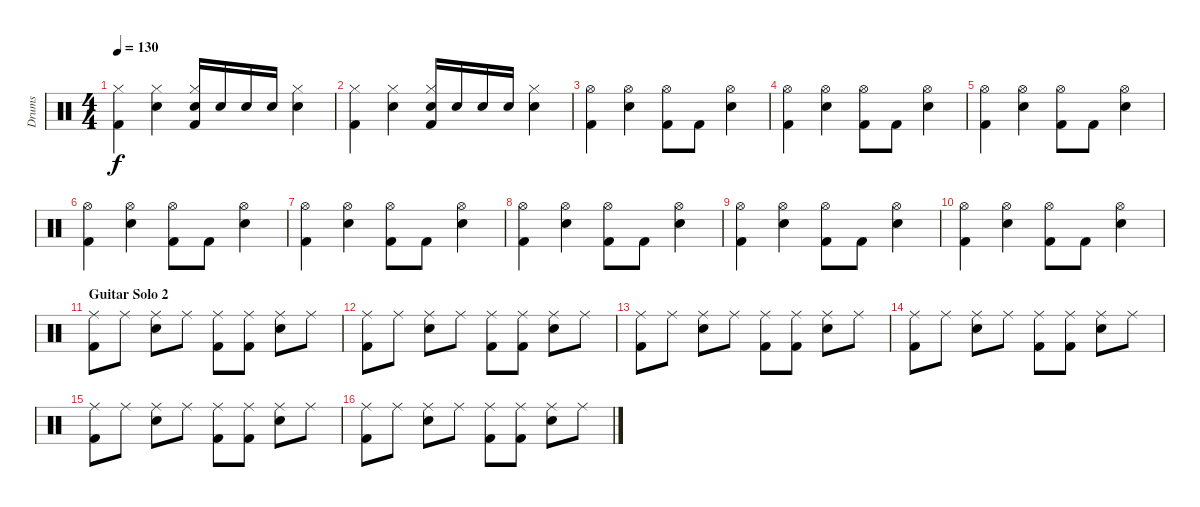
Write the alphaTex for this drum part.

\track ("Drums" "Drums") {instrument percussion}
\staff {score}
\articulation defaults
\ts (4 4)
\tempo 130
\clef neutral
\ks c
("Kick (hit) 2" "Hi-Hat (closed)").4{dy f} ("Hi-Hat (closed)" "Snare (hit) 2").4 ("Kick (hit) 2" "Hi-Hat (closed)" "Snare (hit) 2").16 "Snare (hit) 2".16 "Snare (hit) 2".16 "Snare (hit) 2".16 ("Hi-Hat (closed)" "Snare (hit) 2").4 |
("Kick (hit) 2" "Hi-Hat (closed)").4 ("Hi-Hat (closed)" "Snare (hit) 2").4 ("Kick (hit) 2" "Hi-Hat (closed)" "Snare (hit) 2").16 "Snare (hit) 2".16 "Snare (hit) 2".16 "Snare (hit) 2".16 ("Hi-Hat (closed)" "Snare (hit) 2").4 |
("Kick (hit) 2" "Hi-Hat (open)").4 ("Hi-Hat (open)" "Snare (hit) 2").4 ("Kick (hit) 2" "Hi-Hat (open)").8 "Kick (hit) 2".8 ("Hi-Hat (open)" "Snare (hit) 2").4 |
("Kick (hit) 2" "Hi-Hat (open)").4 ("Hi-Hat (open)" "Snare (hit) 2").4 ("Kick (hit) 2" "Hi-Hat (open)").8 "Kick (hit) 2".8 ("Hi-Hat (open)" "Snare (hit) 2").4 |
("Kick (hit) 2" "Hi-Hat (open)").4 ("Hi-Hat (open)" "Snare (hit) 2").4 ("Kick (hit) 2" "Hi-Hat (open)").8 "Kick (hit) 2".8 ("Hi-Hat (open)" "Snare (hit) 2").4 |
("Kick (hit) 2" "Hi-Hat (open)").4 ("Hi-Hat (open)" "Snare (hit) 2").4 ("Kick (hit) 2" "Hi-Hat (open)").8 "Kick (hit) 2".8 ("Hi-Hat (open)" "Snare (hit) 2").4 |
("Kick (hit) 2" "Hi-Hat (open)").4 ("Hi-Hat (open)" "Snare (hit) 2").4 ("Kick (hit) 2" "Hi-Hat (open)").8 "Kick (hit) 2".8 ("Hi-Hat (open)" "Snare (hit) 2").4 |
("Kick (hit) 2" "Hi-Hat (open)").4 ("Hi-Hat (open)" "Snare (hit) 2").4 ("Kick (hit) 2" "Hi-Hat (open)").8 "Kick (hit) 2".8 ("Hi-Hat (open)" "Snare (hit) 2").4 |
("Kick (hit) 2" "Hi-Hat (open)").4 ("Hi-Hat (open)" "Snare (hit) 2").4 ("Kick (hit) 2" "Hi-Hat (open)").8 "Kick (hit) 2".8 ("Hi-Hat (open)" "Snare (hit) 2").4 |
("Kick (hit) 2" "Hi-Hat (open)").4 ("Hi-Hat (open)" "Snare (hit) 2").4 ("Kick (hit) 2" "Hi-Hat (open)").8 "Kick (hit) 2".8 ("Hi-Hat (open)" "Snare (hit) 2").4 |
\section ("" "Guitar Solo 2")
("Kick (hit) 2" "Ride (middle)").8 "Ride (middle)".8 ("Snare (hit) 2" "Ride (middle)").8 "Ride (middle)".8 ("Kick (hit) 2" "Ride (middle)").8 ("Kick (hit) 2" "Ride (middle)").8 ("Snare (hit) 2" "Ride (middle)").8 "Ride (middle)".8 |
("Kick (hit) 2" "Ride (middle)").8 "Ride (middle)".8 ("Snare (hit) 2" "Ride (middle)").8 "Ride (middle)".8 ("Kick (hit) 2" "Ride (middle)").8 ("Kick (hit) 2" "Ride (middle)").8 ("Snare (hit) 2" "Ride (middle)").8 "Ride (middle)".8 |
("Kick (hit) 2" "Ride (middle)").8 "Ride (middle)".8 ("Snare (hit) 2" "Ride (middle)").8 "Ride (middle)".8 ("Kick (hit) 2" "Ride (middle)").8 ("Kick (hit) 2" "Ride (middle)").8 ("Snare (hit) 2" "Ride (middle)").8 "Ride (middle)".8 |
("Kick (hit) 2" "Ride (middle)").8 "Ride (middle)".8 ("Snare (hit) 2" "Ride (middle)").8 "Ride (middle)".8 ("Kick (hit) 2" "Ride (middle)").8 ("Kick (hit) 2" "Ride (middle)").8 ("Snare (hit) 2" "Ride (middle)").8 "Ride (middle)".8 |
("Kick (hit) 2" "Ride (middle)").8 "Ride (middle)".8 ("Snare (hit) 2" "Ride (middle)").8 "Ride (middle)".8 ("Kick (hit) 2" "Ride (middle)").8 ("Kick (hit) 2" "Ride (middle)").8 ("Snare (hit) 2" "Ride (middle)").8 "Ride (middle)".8 |
("Kick (hit) 2" "Ride (middle)").8 "Ride (middle)".8 ("Snare (hit) 2" "Ride (middle)").8 "Ride (middle)".8 ("Kick (hit) 2" "Ride (middle)").8 ("Kick (hit) 2" "Ride (middle)").8 ("Snare (hit) 2" "Ride (middle)").8 "Ride (middle)".8
